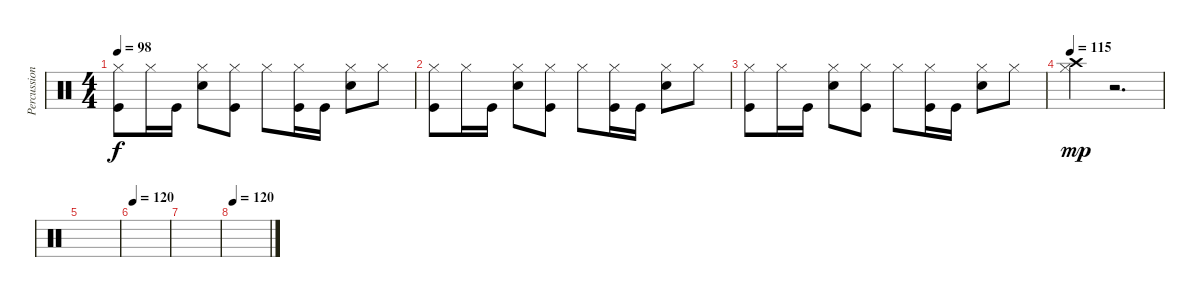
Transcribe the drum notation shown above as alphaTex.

\track ("Percussion" "Percussion") {instrument percussion}
\staff {score}
\articulation defaults
\ts (4 4)
\tempo 98
\clef neutral
\ks c
("Hi-Hat (closed)" "Kick (hit)").8{dy f volume 14} "Hi-Hat (closed)".16 "Kick (hit)".16 ("Hi-Hat (closed)" "Electric Snare (hit)").8 ("Hi-Hat (closed)" "Kick (hit)").8 "Hi-Hat (closed)".8 ("Hi-Hat (closed)" "Kick (hit)").16 "Kick (hit)".16 ("Hi-Hat (closed)" "Electric Snare (hit)").8 "Hi-Hat (closed)".8 |
("Hi-Hat (closed)" "Kick (hit)").8{volume 14} "Hi-Hat (closed)".16 "Kick (hit)".16 ("Hi-Hat (closed)" "Electric Snare (hit)").8 ("Hi-Hat (closed)" "Kick (hit)").8 "Hi-Hat (closed)".8 ("Hi-Hat (closed)" "Kick (hit)").16 "Kick (hit)".16 ("Hi-Hat (closed)" "Electric Snare (hit)").8 "Hi-Hat (closed)".8 |
("Hi-Hat (closed)" "Kick (hit)").8{volume 14} "Hi-Hat (closed)".16 "Kick (hit)".16 ("Hi-Hat (closed)" "Electric Snare (hit)").8 ("Hi-Hat (closed)" "Kick (hit)").8 "Hi-Hat (closed)".8 ("Hi-Hat (closed)" "Kick (hit)").16 "Kick (hit)".16 ("Hi-Hat (closed)" "Electric Snare (hit)").8 "Hi-Hat (closed)".8 |
\tempo 115
("Crash high (hit)" "Hi-Hat (closed)").4{dy mp volume 14} r.2{d} |
|
\tempo 120
|
|
\tempo 120
